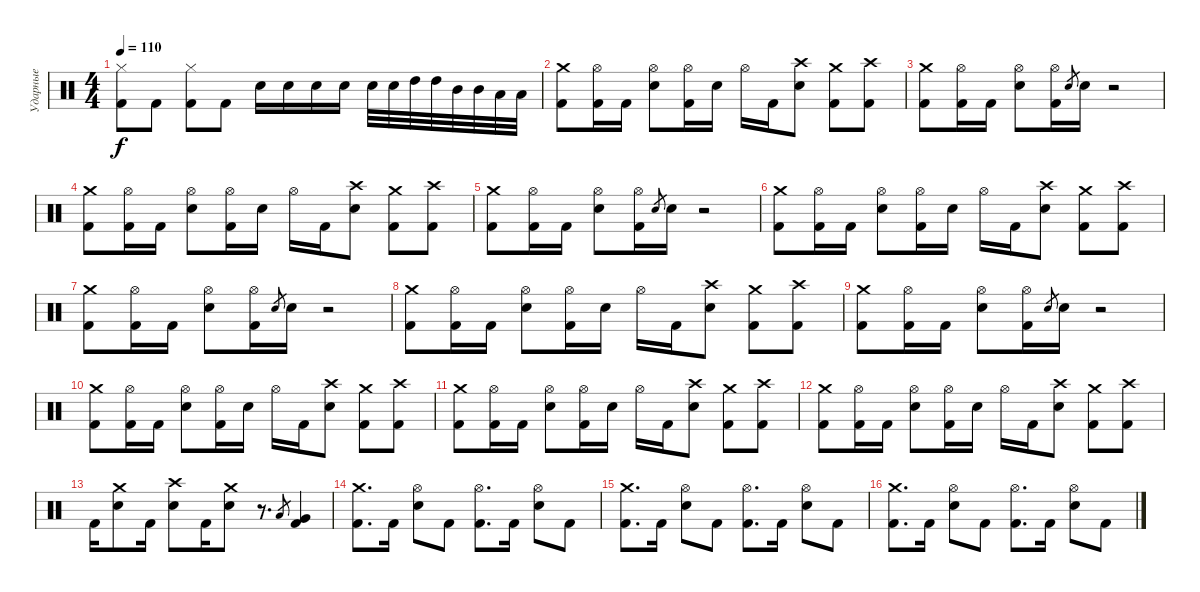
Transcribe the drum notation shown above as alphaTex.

\track ("Ударные" "Ударные") {instrument percussion}
\staff {score}
\articulation defaults
\ts (4 4)
\tempo 110
\clef neutral
\ks c
("Hi-Hat (closed)" "Kick (hit) 2").8{dy f} "Kick (hit) 2".8 ("Hi-Hat (closed)" "Kick (hit) 2").8 "Kick (hit) 2".8 "Electric Snare (hit)".16 "Electric Snare (hit)".16 "Electric Snare (hit)".16 "Electric Snare (hit)".16 "Electric Snare (hit)".32 "Electric Snare (hit)".32 "High Tom (hit)".32 "High Tom (hit)".32 "Mid Tom (hit)".32 "Mid Tom (hit)".32 "Low Tom (hit)".32 "Low Tom (hit)".32 |
("Crash medium (hit)" "Kick (hit) 2").8 ("Hi-Hat (open)" "Kick (hit) 2").16 "Kick (hit) 2".16 ("Hi-Hat (open)" "Electric Snare (hit)").8 ("Hi-Hat (open)" "Kick (hit) 2").16 "Electric Snare (hit)".16 "Hi-Hat (open)".16 "Kick (hit) 2".16 ("Crash high (hit)" "Electric Snare (hit)").8 ("Crash medium (hit)" "Kick (hit) 2").8 ("Crash high (hit)" "Kick (hit) 2").8 |
("Crash medium (hit)" "Kick (hit) 2").8 ("Hi-Hat (open)" "Kick (hit) 2").16 "Kick (hit) 2".16 ("Hi-Hat (open)" "Electric Snare (hit)").8 ("Hi-Hat (open)" "Kick (hit) 2").16 "Electric Snare (hit)".8{gr} "Electric Snare (hit)".16 r.2 |
("Crash medium (hit)" "Kick (hit) 2").8 ("Hi-Hat (open)" "Kick (hit) 2").16 "Kick (hit) 2".16 ("Hi-Hat (open)" "Electric Snare (hit)").8 ("Hi-Hat (open)" "Kick (hit) 2").16 "Electric Snare (hit)".16 "Hi-Hat (open)".16 "Kick (hit) 2".16 ("Crash high (hit)" "Electric Snare (hit)").8 ("Crash medium (hit)" "Kick (hit) 2").8 ("Crash high (hit)" "Kick (hit) 2").8 |
("Crash medium (hit)" "Kick (hit) 2").8 ("Hi-Hat (open)" "Kick (hit) 2").16 "Kick (hit) 2".16 ("Hi-Hat (open)" "Electric Snare (hit)").8 ("Hi-Hat (open)" "Kick (hit) 2").16 "Electric Snare (hit)".8{gr} "Electric Snare (hit)".16 r.2 |
("Crash medium (hit)" "Kick (hit) 2").8 ("Hi-Hat (open)" "Kick (hit) 2").16 "Kick (hit) 2".16 ("Hi-Hat (open)" "Electric Snare (hit)").8 ("Hi-Hat (open)" "Kick (hit) 2").16 "Electric Snare (hit)".16 "Hi-Hat (open)".16 "Kick (hit) 2".16 ("Crash high (hit)" "Electric Snare (hit)").8 ("Crash medium (hit)" "Kick (hit) 2").8 ("Crash high (hit)" "Kick (hit) 2").8 |
("Crash medium (hit)" "Kick (hit) 2").8 ("Hi-Hat (open)" "Kick (hit) 2").16 "Kick (hit) 2".16 ("Hi-Hat (open)" "Electric Snare (hit)").8 ("Hi-Hat (open)" "Kick (hit) 2").16 "Electric Snare (hit)".8{gr} "Electric Snare (hit)".16 r.2 |
("Crash medium (hit)" "Kick (hit) 2").8 ("Hi-Hat (open)" "Kick (hit) 2").16 "Kick (hit) 2".16 ("Hi-Hat (open)" "Electric Snare (hit)").8 ("Hi-Hat (open)" "Kick (hit) 2").16 "Electric Snare (hit)".16 "Hi-Hat (open)".16 "Kick (hit) 2".16 ("Crash high (hit)" "Electric Snare (hit)").8 ("Crash medium (hit)" "Kick (hit) 2").8 ("Crash high (hit)" "Kick (hit) 2").8 |
("Crash medium (hit)" "Kick (hit) 2").8 ("Hi-Hat (open)" "Kick (hit) 2").16 "Kick (hit) 2".16 ("Hi-Hat (open)" "Electric Snare (hit)").8 ("Hi-Hat (open)" "Kick (hit) 2").16 "Electric Snare (hit)".8{gr} "Electric Snare (hit)".16 r.2 |
("Crash medium (hit)" "Kick (hit) 2").8 ("Hi-Hat (open)" "Kick (hit) 2").16 "Kick (hit) 2".16 ("Hi-Hat (open)" "Electric Snare (hit)").8 ("Hi-Hat (open)" "Kick (hit) 2").16 "Electric Snare (hit)".16 "Hi-Hat (open)".16 "Kick (hit) 2".16 ("Crash high (hit)" "Electric Snare (hit)").8 ("Crash medium (hit)" "Kick (hit) 2").8 ("Crash high (hit)" "Kick (hit) 2").8 |
("Crash medium (hit)" "Kick (hit) 2").8 ("Hi-Hat (open)" "Kick (hit) 2").16 "Kick (hit) 2".16 ("Hi-Hat (open)" "Electric Snare (hit)").8 ("Hi-Hat (open)" "Kick (hit) 2").16 "Electric Snare (hit)".16 "Hi-Hat (open)".16 "Kick (hit) 2".16 ("Crash high (hit)" "Electric Snare (hit)").8 ("Crash medium (hit)" "Kick (hit) 2").8 ("Crash high (hit)" "Kick (hit) 2").8 |
("Crash medium (hit)" "Kick (hit) 2").8 ("Hi-Hat (open)" "Kick (hit) 2").16 "Kick (hit) 2".16 ("Hi-Hat (open)" "Electric Snare (hit)").8 ("Hi-Hat (open)" "Kick (hit) 2").16 "Electric Snare (hit)".16 "Hi-Hat (open)".16 "Kick (hit) 2".16 ("Crash high (hit)" "Electric Snare (hit)").8 ("Crash medium (hit)" "Kick (hit) 2").8 ("Crash high (hit)" "Kick (hit) 2").8 |
"Kick (hit) 2".16 ("Crash medium (hit)" "Electric Snare (hit)").8 "Kick (hit) 2".16 ("Crash high (hit)" "Electric Snare (hit)").8 "Kick (hit) 2".16 ("Crash medium (hit)" "Electric Snare (hit)").8 r.8{d} "Low Tom (hit)".8{gr} ("Very Low Tom (hit)" "Kick (hit) 2").4 |
("Crash medium (hit)" "Kick (hit) 2").8{d} "Kick (hit) 2".16 ("Hi-Hat (open)" "Electric Snare (hit)").8 "Kick (hit) 2".8 ("Hi-Hat (open)" "Kick (hit) 2").8{d} "Kick (hit) 2".16 ("Hi-Hat (open)" "Electric Snare (hit)").8 "Kick (hit) 2".8 |
("Crash medium (hit)" "Kick (hit) 2").8{d} "Kick (hit) 2".16 ("Hi-Hat (open)" "Electric Snare (hit)").8 "Kick (hit) 2".8 ("Hi-Hat (open)" "Kick (hit) 2").8{d} "Kick (hit) 2".16 ("Hi-Hat (open)" "Electric Snare (hit)").8 "Kick (hit) 2".8 |
("Crash medium (hit)" "Kick (hit) 2").8{d} "Kick (hit) 2".16 ("Hi-Hat (open)" "Electric Snare (hit)").8 "Kick (hit) 2".8 ("Hi-Hat (open)" "Kick (hit) 2").8{d} "Kick (hit) 2".16 ("Hi-Hat (open)" "Electric Snare (hit)").8 "Kick (hit) 2".8
